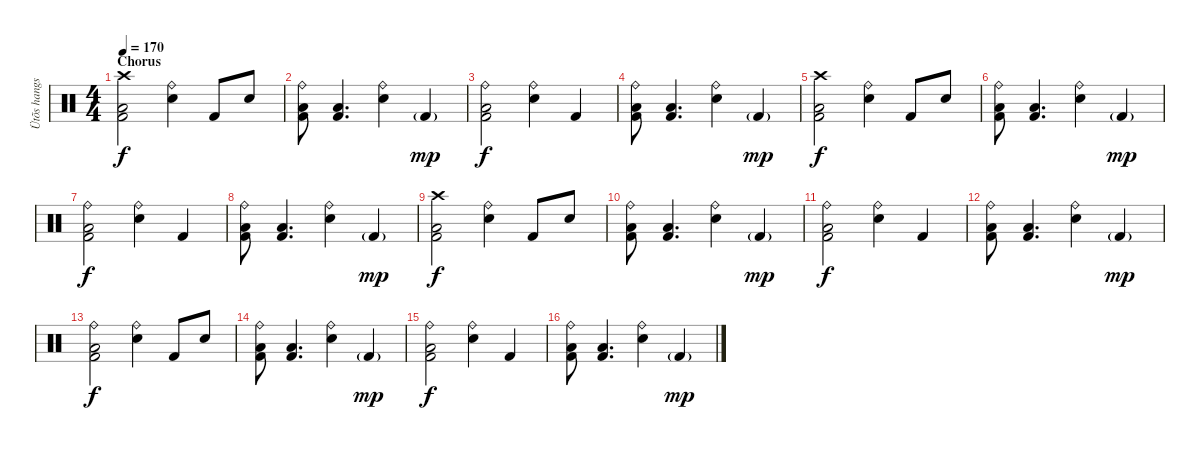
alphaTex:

\track ("Ütõs hangszer" "Ütõs hangs") {instrument percussion}
\staff {score}
\articulation defaults
\ts (4 4)
\section ("" "Chorus")
\tempo 170
\clef neutral
\ks c
("Crash high (hit)" "Kick (hit) 2" "Low Floor Tom (hit)").2{dy f} ("Ride (bell)" "Electric Snare (hit)").4 "Kick (hit) 2".8 "Electric Snare (hit)".8 |
("Ride (bell)" "Kick (hit) 2" "Low Floor Tom (hit)").8 ("Kick (hit) 2" "Low Floor Tom (hit)").4{d} ("Ride (bell)" "Electric Snare (hit)").4 "Kick (hit) 2"{g}.4{dy mp} |
("Ride (bell)" "Kick (hit) 2" "Low Floor Tom (hit)").2{dy f} ("Ride (bell)" "Electric Snare (hit)").4 "Kick (hit) 2".4 |
("Ride (bell)" "Kick (hit) 2" "Low Floor Tom (hit)").8 ("Kick (hit) 2" "Low Floor Tom (hit)").4{d} ("Ride (bell)" "Electric Snare (hit)").4 "Kick (hit) 2"{g}.4{dy mp} |
("Crash high (hit)" "Kick (hit) 2" "Low Floor Tom (hit)").2{dy f} ("Ride (bell)" "Electric Snare (hit)").4 "Kick (hit) 2".8 "Electric Snare (hit)".8 |
("Ride (bell)" "Kick (hit) 2" "Low Floor Tom (hit)").8 ("Kick (hit) 2" "Low Floor Tom (hit)").4{d} ("Ride (bell)" "Electric Snare (hit)").4 "Kick (hit) 2"{g}.4{dy mp} |
("Ride (bell)" "Kick (hit) 2" "Low Floor Tom (hit)").2{dy f} ("Ride (bell)" "Electric Snare (hit)").4 "Kick (hit) 2".4 |
("Ride (bell)" "Kick (hit) 2" "Low Floor Tom (hit)").8 ("Kick (hit) 2" "Low Floor Tom (hit)").4{d} ("Ride (bell)" "Electric Snare (hit)").4 "Kick (hit) 2"{g}.4{dy mp} |
("Crash high (hit)" "Kick (hit) 2" "Low Floor Tom (hit)").2{dy f} ("Ride (bell)" "Electric Snare (hit)").4 "Kick (hit) 2".8 "Electric Snare (hit)".8 |
("Ride (bell)" "Kick (hit) 2" "Low Floor Tom (hit)").8 ("Kick (hit) 2" "Low Floor Tom (hit)").4{d} ("Ride (bell)" "Electric Snare (hit)").4 "Kick (hit) 2"{g}.4{dy mp} |
("Ride (bell)" "Kick (hit) 2" "Low Floor Tom (hit)").2{dy f} ("Ride (bell)" "Electric Snare (hit)").4 "Kick (hit) 2".4 |
("Ride (bell)" "Kick (hit) 2" "Low Floor Tom (hit)").8 ("Kick (hit) 2" "Low Floor Tom (hit)").4{d} ("Ride (bell)" "Electric Snare (hit)").4 "Kick (hit) 2"{g}.4{dy mp} |
("Ride (bell)" "Kick (hit) 2" "Low Floor Tom (hit)").2{dy f} ("Ride (bell)" "Electric Snare (hit)").4 "Kick (hit) 2".8 "Electric Snare (hit)".8 |
("Ride (bell)" "Kick (hit) 2" "Low Floor Tom (hit)").8 ("Kick (hit) 2" "Low Floor Tom (hit)").4{d} ("Ride (bell)" "Electric Snare (hit)").4 "Kick (hit) 2"{g}.4{dy mp} |
("Ride (bell)" "Kick (hit) 2" "Low Floor Tom (hit)").2{dy f} ("Ride (bell)" "Electric Snare (hit)").4 "Kick (hit) 2".4 |
("Ride (bell)" "Kick (hit) 2" "Low Floor Tom (hit)").8 ("Kick (hit) 2" "Low Floor Tom (hit)").4{d} ("Ride (bell)" "Electric Snare (hit)").4 "Kick (hit) 2"{g}.4{dy mp}
